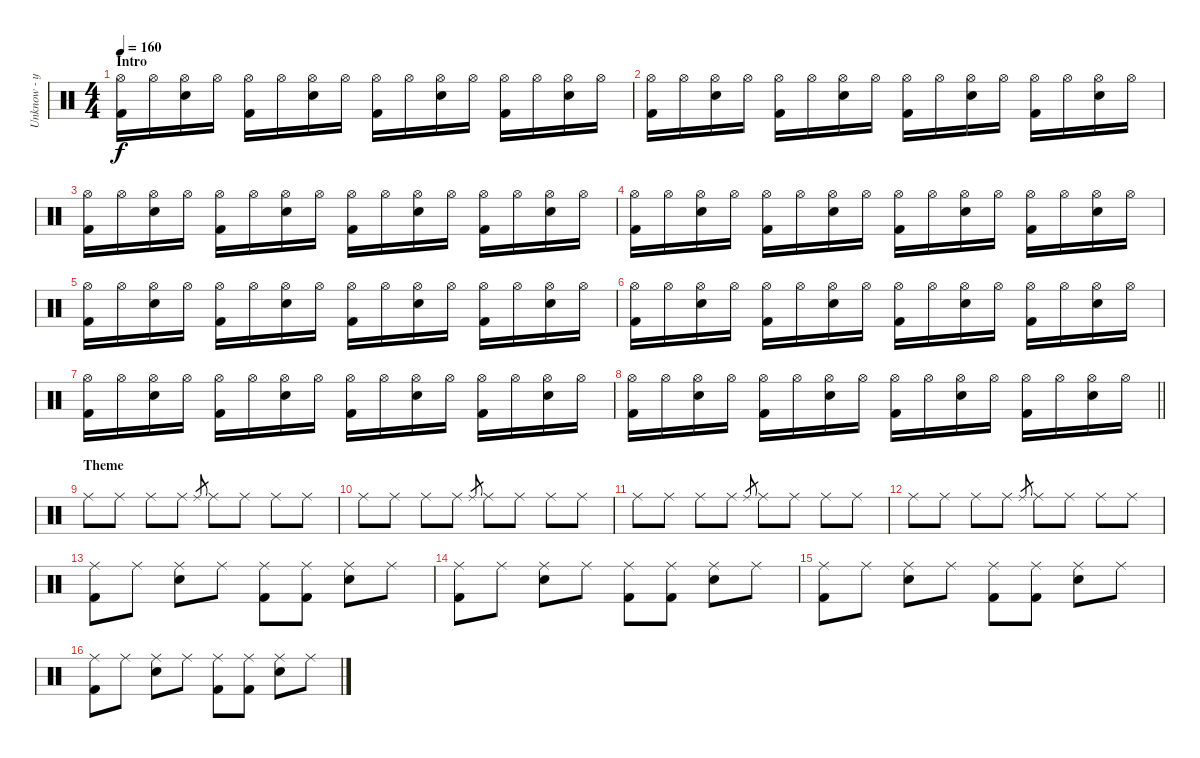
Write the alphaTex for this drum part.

\track ("Unknow - ударные" "Unknow - у") {instrument percussion}
\staff {score}
\articulation defaults
\ts (4 4)
\section ("" "Intro")
\tempo 160
\clef neutral
\ks c
("Hi-Hat (open)" "Kick (hit) 2").16{dy f} "Hi-Hat (open)".16 ("Hi-Hat (open)" "Snare (hit) 2").16 "Hi-Hat (open)".16 ("Hi-Hat (open)" "Kick (hit) 2").16 "Hi-Hat (open)".16 ("Hi-Hat (open)" "Snare (hit) 2").16 "Hi-Hat (open)".16 ("Hi-Hat (open)" "Kick (hit) 2").16 "Hi-Hat (open)".16 ("Hi-Hat (open)" "Snare (hit) 2").16 "Hi-Hat (open)".16 ("Hi-Hat (open)" "Kick (hit) 2").16 "Hi-Hat (open)".16 ("Hi-Hat (open)" "Snare (hit) 2").16 "Hi-Hat (open)".16 |
("Hi-Hat (open)" "Kick (hit) 2").16 "Hi-Hat (open)".16 ("Hi-Hat (open)" "Snare (hit) 2").16 "Hi-Hat (open)".16 ("Hi-Hat (open)" "Kick (hit) 2").16 "Hi-Hat (open)".16 ("Hi-Hat (open)" "Snare (hit) 2").16 "Hi-Hat (open)".16 ("Hi-Hat (open)" "Kick (hit) 2").16 "Hi-Hat (open)".16 ("Hi-Hat (open)" "Snare (hit) 2").16 "Hi-Hat (open)".16 ("Hi-Hat (open)" "Kick (hit) 2").16 "Hi-Hat (open)".16 ("Hi-Hat (open)" "Snare (hit) 2").16 "Hi-Hat (open)".16 |
("Hi-Hat (open)" "Kick (hit) 2").16 "Hi-Hat (open)".16 ("Hi-Hat (open)" "Snare (hit) 2").16 "Hi-Hat (open)".16 ("Hi-Hat (open)" "Kick (hit) 2").16 "Hi-Hat (open)".16 ("Hi-Hat (open)" "Snare (hit) 2").16 "Hi-Hat (open)".16 ("Hi-Hat (open)" "Kick (hit) 2").16 "Hi-Hat (open)".16 ("Hi-Hat (open)" "Snare (hit) 2").16 "Hi-Hat (open)".16 ("Hi-Hat (open)" "Kick (hit) 2").16 "Hi-Hat (open)".16 ("Hi-Hat (open)" "Snare (hit) 2").16 "Hi-Hat (open)".16 |
("Hi-Hat (open)" "Kick (hit) 2").16 "Hi-Hat (open)".16 ("Hi-Hat (open)" "Snare (hit) 2").16 "Hi-Hat (open)".16 ("Hi-Hat (open)" "Kick (hit) 2").16 "Hi-Hat (open)".16 ("Hi-Hat (open)" "Snare (hit) 2").16 "Hi-Hat (open)".16 ("Hi-Hat (open)" "Kick (hit) 2").16 "Hi-Hat (open)".16 ("Hi-Hat (open)" "Snare (hit) 2").16 "Hi-Hat (open)".16 ("Hi-Hat (open)" "Kick (hit) 2").16 "Hi-Hat (open)".16 ("Hi-Hat (open)" "Snare (hit) 2").16 "Hi-Hat (open)".16 |
("Hi-Hat (open)" "Kick (hit) 2").16 "Hi-Hat (open)".16 ("Hi-Hat (open)" "Snare (hit) 2").16 "Hi-Hat (open)".16 ("Hi-Hat (open)" "Kick (hit) 2").16 "Hi-Hat (open)".16 ("Hi-Hat (open)" "Snare (hit) 2").16 "Hi-Hat (open)".16 ("Hi-Hat (open)" "Kick (hit) 2").16 "Hi-Hat (open)".16 ("Hi-Hat (open)" "Snare (hit) 2").16 "Hi-Hat (open)".16 ("Hi-Hat (open)" "Kick (hit) 2").16 "Hi-Hat (open)".16 ("Hi-Hat (open)" "Snare (hit) 2").16 "Hi-Hat (open)".16 |
("Hi-Hat (open)" "Kick (hit) 2").16 "Hi-Hat (open)".16 ("Hi-Hat (open)" "Snare (hit) 2").16 "Hi-Hat (open)".16 ("Hi-Hat (open)" "Kick (hit) 2").16 "Hi-Hat (open)".16 ("Hi-Hat (open)" "Snare (hit) 2").16 "Hi-Hat (open)".16 ("Hi-Hat (open)" "Kick (hit) 2").16 "Hi-Hat (open)".16 ("Hi-Hat (open)" "Snare (hit) 2").16 "Hi-Hat (open)".16 ("Hi-Hat (open)" "Kick (hit) 2").16 "Hi-Hat (open)".16 ("Hi-Hat (open)" "Snare (hit) 2").16 "Hi-Hat (open)".16 |
("Hi-Hat (open)" "Kick (hit) 2").16 "Hi-Hat (open)".16 ("Hi-Hat (open)" "Snare (hit) 2").16 "Hi-Hat (open)".16 ("Hi-Hat (open)" "Kick (hit) 2").16 "Hi-Hat (open)".16 ("Hi-Hat (open)" "Snare (hit) 2").16 "Hi-Hat (open)".16 ("Hi-Hat (open)" "Kick (hit) 2").16 "Hi-Hat (open)".16 ("Hi-Hat (open)" "Snare (hit) 2").16 "Hi-Hat (open)".16 ("Hi-Hat (open)" "Kick (hit) 2").16 "Hi-Hat (open)".16 ("Hi-Hat (open)" "Snare (hit) 2").16 "Hi-Hat (open)".16 |
\barLineRight lightlight
("Hi-Hat (open)" "Kick (hit) 2").16 "Hi-Hat (open)".16 ("Hi-Hat (open)" "Snare (hit) 2").16 "Hi-Hat (open)".16 ("Hi-Hat (open)" "Kick (hit) 2").16 "Hi-Hat (open)".16 ("Hi-Hat (open)" "Snare (hit) 2").16 "Hi-Hat (open)".16 ("Hi-Hat (open)" "Kick (hit) 2").16 "Hi-Hat (open)".16 ("Hi-Hat (open)" "Snare (hit) 2").16 "Hi-Hat (open)".16 ("Hi-Hat (open)" "Kick (hit) 2").16 "Hi-Hat (open)".16 ("Hi-Hat (open)" "Snare (hit) 2").16 "Hi-Hat (open)".16 |
\section ("" "Theme")
"Ride (middle)".8 "Ride (middle)".8 "Ride (middle)".8 "Ride (middle)".8 "Ride (middle)".8{gr} "Ride (middle)".8 "Ride (middle)".8 "Ride (middle)".8 "Ride (middle)".8 |
"Ride (middle)".8 "Ride (middle)".8 "Ride (middle)".8 "Ride (middle)".8 "Ride (middle)".8{gr} "Ride (middle)".8 "Ride (middle)".8 "Ride (middle)".8 "Ride (middle)".8 |
"Ride (middle)".8 "Ride (middle)".8 "Ride (middle)".8 "Ride (middle)".8 "Ride (middle)".8{gr} "Ride (middle)".8 "Ride (middle)".8 "Ride (middle)".8 "Ride (middle)".8 |
"Ride (middle)".8 "Ride (middle)".8 "Ride (middle)".8 "Ride (middle)".8 "Ride (middle)".8{gr} "Ride (middle)".8 "Ride (middle)".8 "Ride (middle)".8 "Ride (middle)".8 |
("Ride (middle)" "Kick (hit) 2").8 "Ride (middle)".8 ("Ride (middle)" "Snare (hit) 2").8 "Ride (middle)".8 ("Ride (middle)" "Kick (hit) 2").8 ("Ride (middle)" "Kick (hit) 2").8 ("Ride (middle)" "Snare (hit) 2").8 "Ride (middle)".8 |
("Ride (middle)" "Kick (hit) 2").8 "Ride (middle)".8 ("Ride (middle)" "Snare (hit) 2").8 "Ride (middle)".8 ("Ride (middle)" "Kick (hit) 2").8 ("Ride (middle)" "Kick (hit) 2").8 ("Ride (middle)" "Snare (hit) 2").8 "Ride (middle)".8 |
("Ride (middle)" "Kick (hit) 2").8 "Ride (middle)".8 ("Ride (middle)" "Snare (hit) 2").8 "Ride (middle)".8 ("Ride (middle)" "Kick (hit) 2").8 ("Ride (middle)" "Kick (hit) 2").8 ("Ride (middle)" "Snare (hit) 2").8 "Ride (middle)".8 |
("Ride (middle)" "Kick (hit) 2").8 "Ride (middle)".8 ("Ride (middle)" "Snare (hit) 2").8 "Ride (middle)".8 ("Ride (middle)" "Kick (hit) 2").8 ("Ride (middle)" "Kick (hit) 2").8 ("Ride (middle)" "Snare (hit) 2").8 "Ride (middle)".8
